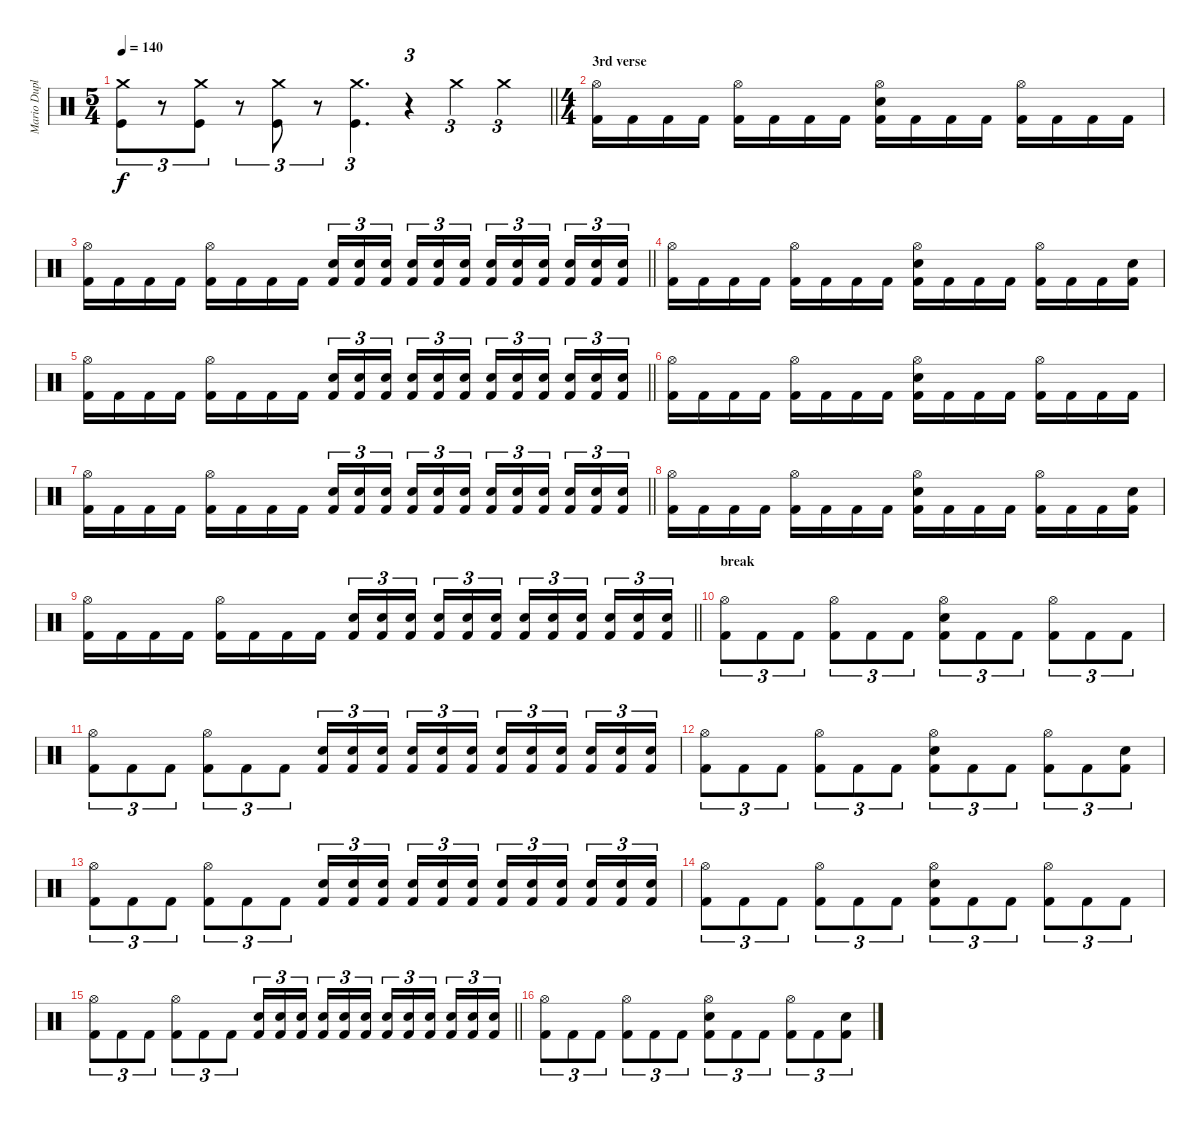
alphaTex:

\track ("Mario Duplantier" "Mario Dupl") {instrument percussion}
\staff {score}
\articulation defaults
\ts (5 4)
\tempo 140
\clef neutral
\barLineRight lightlight
\ks c
("Crash medium (hit)" "Kick (hit)").8{tu (3 2) dy f} r.8{tu (3 2)} ("Crash medium (hit)" "Kick (hit)").8{tu (3 2)} r.8{tu (3 2)} ("Crash medium (hit)" "Kick (hit)").8{tu (3 2)} r.8{tu (3 2)} ("Crash medium (hit)" "Kick (hit)").4{d tu (3 2)} r.4{tu (3 2)} "Crash medium (hit)".4{tu (3 2)} "Crash medium (hit)".4{tu (3 2)} |
\ts (4 4)
\section ("" "3rd verse")
("Hi-Hat (open)" "Kick (hit) 2").16 "Kick (hit) 2".16 "Kick (hit) 2".16 "Kick (hit) 2".16 ("Hi-Hat (open)" "Kick (hit) 2").16 "Kick (hit) 2".16 "Kick (hit) 2".16 "Kick (hit) 2".16 ("Hi-Hat (open)" "Electric Snare (hit)" "Kick (hit) 2").16 "Kick (hit) 2".16 "Kick (hit) 2".16 "Kick (hit) 2".16 ("Hi-Hat (open)" "Kick (hit) 2").16 "Kick (hit) 2".16 "Kick (hit) 2".16 "Kick (hit) 2".16 |
\barLineRight lightlight
("Hi-Hat (open)" "Kick (hit) 2").16 "Kick (hit) 2".16 "Kick (hit) 2".16 "Kick (hit) 2".16 ("Hi-Hat (open)" "Kick (hit) 2").16 "Kick (hit) 2".16 "Kick (hit) 2".16 "Kick (hit) 2".16 ("Snare (hit) 2" "Kick (hit) 2").16{tu (3 2)} ("Snare (hit) 2" "Kick (hit) 2").16{tu (3 2)} ("Snare (hit) 2" "Kick (hit) 2").16{tu (3 2) beam splitsecondary} ("Snare (hit) 2" "Kick (hit) 2").16{tu (3 2)} ("Snare (hit) 2" "Kick (hit) 2").16{tu (3 2)} ("Snare (hit) 2" "Kick (hit) 2").16{tu (3 2)} ("Snare (hit) 2" "Kick (hit) 2").16{tu (3 2)} ("Snare (hit) 2" "Kick (hit) 2").16{tu (3 2)} ("Snare (hit) 2" "Kick (hit) 2").16{tu (3 2) beam splitsecondary} ("Snare (hit) 2" "Kick (hit) 2").16{tu (3 2)} ("Snare (hit) 2" "Kick (hit) 2").16{tu (3 2)} ("Snare (hit) 2" "Kick (hit) 2").16{tu (3 2)} |
("Hi-Hat (open)" "Kick (hit) 2").16 "Kick (hit) 2".16 "Kick (hit) 2".16 "Kick (hit) 2".16 ("Hi-Hat (open)" "Kick (hit) 2").16 "Kick (hit) 2".16 "Kick (hit) 2".16 "Kick (hit) 2".16 ("Hi-Hat (open)" "Electric Snare (hit)" "Kick (hit) 2").16 "Kick (hit) 2".16 "Kick (hit) 2".16 "Kick (hit) 2".16 ("Hi-Hat (open)" "Kick (hit) 2").16 "Kick (hit) 2".16 "Kick (hit) 2".16 ("Electric Snare (hit)" "Kick (hit) 2").16 |
\barLineRight lightlight
("Hi-Hat (open)" "Kick (hit) 2").16 "Kick (hit) 2".16 "Kick (hit) 2".16 "Kick (hit) 2".16 ("Hi-Hat (open)" "Kick (hit) 2").16 "Kick (hit) 2".16 "Kick (hit) 2".16 "Kick (hit) 2".16 ("Snare (hit) 2" "Kick (hit) 2").16{tu (3 2)} ("Snare (hit) 2" "Kick (hit) 2").16{tu (3 2)} ("Snare (hit) 2" "Kick (hit) 2").16{tu (3 2) beam splitsecondary} ("Snare (hit) 2" "Kick (hit) 2").16{tu (3 2)} ("Snare (hit) 2" "Kick (hit) 2").16{tu (3 2)} ("Snare (hit) 2" "Kick (hit) 2").16{tu (3 2)} ("Snare (hit) 2" "Kick (hit) 2").16{tu (3 2)} ("Snare (hit) 2" "Kick (hit) 2").16{tu (3 2)} ("Snare (hit) 2" "Kick (hit) 2").16{tu (3 2) beam splitsecondary} ("Snare (hit) 2" "Kick (hit) 2").16{tu (3 2)} ("Snare (hit) 2" "Kick (hit) 2").16{tu (3 2)} ("Snare (hit) 2" "Kick (hit) 2").16{tu (3 2)} |
("Hi-Hat (open)" "Kick (hit) 2").16 "Kick (hit) 2".16 "Kick (hit) 2".16 "Kick (hit) 2".16 ("Hi-Hat (open)" "Kick (hit) 2").16 "Kick (hit) 2".16 "Kick (hit) 2".16 "Kick (hit) 2".16 ("Hi-Hat (open)" "Electric Snare (hit)" "Kick (hit) 2").16 "Kick (hit) 2".16 "Kick (hit) 2".16 "Kick (hit) 2".16 ("Hi-Hat (open)" "Kick (hit) 2").16 "Kick (hit) 2".16 "Kick (hit) 2".16 "Kick (hit) 2".16 |
\barLineRight lightlight
("Hi-Hat (open)" "Kick (hit) 2").16 "Kick (hit) 2".16 "Kick (hit) 2".16 "Kick (hit) 2".16 ("Hi-Hat (open)" "Kick (hit) 2").16 "Kick (hit) 2".16 "Kick (hit) 2".16 "Kick (hit) 2".16 ("Snare (hit) 2" "Kick (hit) 2").16{tu (3 2)} ("Snare (hit) 2" "Kick (hit) 2").16{tu (3 2)} ("Snare (hit) 2" "Kick (hit) 2").16{tu (3 2) beam splitsecondary} ("Snare (hit) 2" "Kick (hit) 2").16{tu (3 2)} ("Snare (hit) 2" "Kick (hit) 2").16{tu (3 2)} ("Snare (hit) 2" "Kick (hit) 2").16{tu (3 2)} ("Snare (hit) 2" "Kick (hit) 2").16{tu (3 2)} ("Snare (hit) 2" "Kick (hit) 2").16{tu (3 2)} ("Snare (hit) 2" "Kick (hit) 2").16{tu (3 2) beam splitsecondary} ("Snare (hit) 2" "Kick (hit) 2").16{tu (3 2)} ("Snare (hit) 2" "Kick (hit) 2").16{tu (3 2)} ("Snare (hit) 2" "Kick (hit) 2").16{tu (3 2)} |
("Hi-Hat (open)" "Kick (hit) 2").16 "Kick (hit) 2".16 "Kick (hit) 2".16 "Kick (hit) 2".16 ("Hi-Hat (open)" "Kick (hit) 2").16 "Kick (hit) 2".16 "Kick (hit) 2".16 "Kick (hit) 2".16 ("Hi-Hat (open)" "Electric Snare (hit)" "Kick (hit) 2").16 "Kick (hit) 2".16 "Kick (hit) 2".16 "Kick (hit) 2".16 ("Hi-Hat (open)" "Kick (hit) 2").16 "Kick (hit) 2".16 "Kick (hit) 2".16 ("Electric Snare (hit)" "Kick (hit) 2").16 |
\barLineRight lightlight
("Hi-Hat (open)" "Kick (hit) 2").16 "Kick (hit) 2".16 "Kick (hit) 2".16 "Kick (hit) 2".16 ("Hi-Hat (open)" "Kick (hit) 2").16 "Kick (hit) 2".16 "Kick (hit) 2".16 "Kick (hit) 2".16 ("Snare (hit) 2" "Kick (hit) 2").16{tu (3 2)} ("Snare (hit) 2" "Kick (hit) 2").16{tu (3 2)} ("Snare (hit) 2" "Kick (hit) 2").16{tu (3 2) beam splitsecondary} ("Snare (hit) 2" "Kick (hit) 2").16{tu (3 2)} ("Snare (hit) 2" "Kick (hit) 2").16{tu (3 2)} ("Snare (hit) 2" "Kick (hit) 2").16{tu (3 2)} ("Snare (hit) 2" "Kick (hit) 2").16{tu (3 2)} ("Snare (hit) 2" "Kick (hit) 2").16{tu (3 2)} ("Snare (hit) 2" "Kick (hit) 2").16{tu (3 2) beam splitsecondary} ("Snare (hit) 2" "Kick (hit) 2").16{tu (3 2)} ("Snare (hit) 2" "Kick (hit) 2").16{tu (3 2)} ("Snare (hit) 2" "Kick (hit) 2").16{tu (3 2)} |
\section ("" "break")
("Hi-Hat (open)" "Kick (hit) 2").8{tu (3 2)} "Kick (hit) 2".8{tu (3 2)} "Kick (hit) 2".8{tu (3 2)} ("Hi-Hat (open)" "Kick (hit) 2").8{tu (3 2)} "Kick (hit) 2".8{tu (3 2)} "Kick (hit) 2".8{tu (3 2)} ("Hi-Hat (open)" "Electric Snare (hit)" "Kick (hit) 2").8{tu (3 2)} "Kick (hit) 2".8{tu (3 2)} "Kick (hit) 2".8{tu (3 2)} ("Hi-Hat (open)" "Kick (hit) 2").8{tu (3 2)} "Kick (hit) 2".8{tu (3 2)} "Kick (hit) 2".8{tu (3 2)} |
("Hi-Hat (open)" "Kick (hit) 2").8{tu (3 2)} "Kick (hit) 2".8{tu (3 2)} "Kick (hit) 2".8{tu (3 2)} ("Hi-Hat (open)" "Kick (hit) 2").8{tu (3 2)} "Kick (hit) 2".8{tu (3 2)} "Kick (hit) 2".8{tu (3 2)} ("Electric Snare (hit)" "Kick (hit) 2").16{tu (3 2)} ("Electric Snare (hit)" "Kick (hit) 2").16{tu (3 2)} ("Electric Snare (hit)" "Kick (hit) 2").16{tu (3 2) beam splitsecondary} ("Electric Snare (hit)" "Kick (hit) 2").16{tu (3 2)} ("Electric Snare (hit)" "Kick (hit) 2").16{tu (3 2)} ("Electric Snare (hit)" "Kick (hit) 2").16{tu (3 2)} ("Electric Snare (hit)" "Kick (hit) 2").16{tu (3 2)} ("Electric Snare (hit)" "Kick (hit) 2").16{tu (3 2)} ("Electric Snare (hit)" "Kick (hit) 2").16{tu (3 2) beam splitsecondary} ("Electric Snare (hit)" "Kick (hit) 2").16{tu (3 2)} ("Electric Snare (hit)" "Kick (hit) 2").16{tu (3 2)} ("Electric Snare (hit)" "Kick (hit) 2").16{tu (3 2)} |
("Hi-Hat (open)" "Kick (hit) 2").8{tu (3 2)} "Kick (hit) 2".8{tu (3 2)} "Kick (hit) 2".8{tu (3 2)} ("Hi-Hat (open)" "Kick (hit) 2").8{tu (3 2)} "Kick (hit) 2".8{tu (3 2)} "Kick (hit) 2".8{tu (3 2)} ("Hi-Hat (open)" "Electric Snare (hit)" "Kick (hit) 2").8{tu (3 2)} "Kick (hit) 2".8{tu (3 2)} "Kick (hit) 2".8{tu (3 2)} ("Hi-Hat (open)" "Kick (hit) 2").8{tu (3 2)} "Kick (hit) 2".8{tu (3 2)} ("Electric Snare (hit)" "Kick (hit) 2").8{tu (3 2)} |
("Hi-Hat (open)" "Kick (hit) 2").8{tu (3 2)} "Kick (hit) 2".8{tu (3 2)} "Kick (hit) 2".8{tu (3 2)} ("Hi-Hat (open)" "Kick (hit) 2").8{tu (3 2)} "Kick (hit) 2".8{tu (3 2)} "Kick (hit) 2".8{tu (3 2)} ("Electric Snare (hit)" "Kick (hit) 2").16{tu (3 2)} ("Electric Snare (hit)" "Kick (hit) 2").16{tu (3 2)} ("Electric Snare (hit)" "Kick (hit) 2").16{tu (3 2) beam splitsecondary} ("Electric Snare (hit)" "Kick (hit) 2").16{tu (3 2)} ("Electric Snare (hit)" "Kick (hit) 2").16{tu (3 2)} ("Electric Snare (hit)" "Kick (hit) 2").16{tu (3 2)} ("Electric Snare (hit)" "Kick (hit) 2").16{tu (3 2)} ("Electric Snare (hit)" "Kick (hit) 2").16{tu (3 2)} ("Electric Snare (hit)" "Kick (hit) 2").16{tu (3 2) beam splitsecondary} ("Electric Snare (hit)" "Kick (hit) 2").16{tu (3 2)} ("Electric Snare (hit)" "Kick (hit) 2").16{tu (3 2)} ("Electric Snare (hit)" "Kick (hit) 2").16{tu (3 2)} |
("Hi-Hat (open)" "Kick (hit) 2").8{tu (3 2)} "Kick (hit) 2".8{tu (3 2)} "Kick (hit) 2".8{tu (3 2)} ("Hi-Hat (open)" "Kick (hit) 2").8{tu (3 2)} "Kick (hit) 2".8{tu (3 2)} "Kick (hit) 2".8{tu (3 2)} ("Hi-Hat (open)" "Electric Snare (hit)" "Kick (hit) 2").8{tu (3 2)} "Kick (hit) 2".8{tu (3 2)} "Kick (hit) 2".8{tu (3 2)} ("Hi-Hat (open)" "Kick (hit) 2").8{tu (3 2)} "Kick (hit) 2".8{tu (3 2)} "Kick (hit) 2".8{tu (3 2)} |
\barLineRight lightlight
("Hi-Hat (open)" "Kick (hit) 2").8{tu (3 2)} "Kick (hit) 2".8{tu (3 2)} "Kick (hit) 2".8{tu (3 2)} ("Hi-Hat (open)" "Kick (hit) 2").8{tu (3 2)} "Kick (hit) 2".8{tu (3 2)} "Kick (hit) 2".8{tu (3 2)} ("Electric Snare (hit)" "Kick (hit) 2").16{tu (3 2)} ("Electric Snare (hit)" "Kick (hit) 2").16{tu (3 2)} ("Electric Snare (hit)" "Kick (hit) 2").16{tu (3 2) beam splitsecondary} ("Electric Snare (hit)" "Kick (hit) 2").16{tu (3 2)} ("Electric Snare (hit)" "Kick (hit) 2").16{tu (3 2)} ("Electric Snare (hit)" "Kick (hit) 2").16{tu (3 2)} ("Electric Snare (hit)" "Kick (hit) 2").16{tu (3 2)} ("Electric Snare (hit)" "Kick (hit) 2").16{tu (3 2)} ("Electric Snare (hit)" "Kick (hit) 2").16{tu (3 2) beam splitsecondary} ("Electric Snare (hit)" "Kick (hit) 2").16{tu (3 2)} ("Electric Snare (hit)" "Kick (hit) 2").16{tu (3 2)} ("Electric Snare (hit)" "Kick (hit) 2").16{tu (3 2)} |
("Hi-Hat (open)" "Kick (hit) 2").8{tu (3 2)} "Kick (hit) 2".8{tu (3 2)} "Kick (hit) 2".8{tu (3 2)} ("Hi-Hat (open)" "Kick (hit) 2").8{tu (3 2)} "Kick (hit) 2".8{tu (3 2)} "Kick (hit) 2".8{tu (3 2)} ("Hi-Hat (open)" "Electric Snare (hit)" "Kick (hit) 2").8{tu (3 2)} "Kick (hit) 2".8{tu (3 2)} "Kick (hit) 2".8{tu (3 2)} ("Hi-Hat (open)" "Kick (hit) 2").8{tu (3 2)} "Kick (hit) 2".8{tu (3 2)} ("Electric Snare (hit)" "Kick (hit) 2").8{tu (3 2)}
